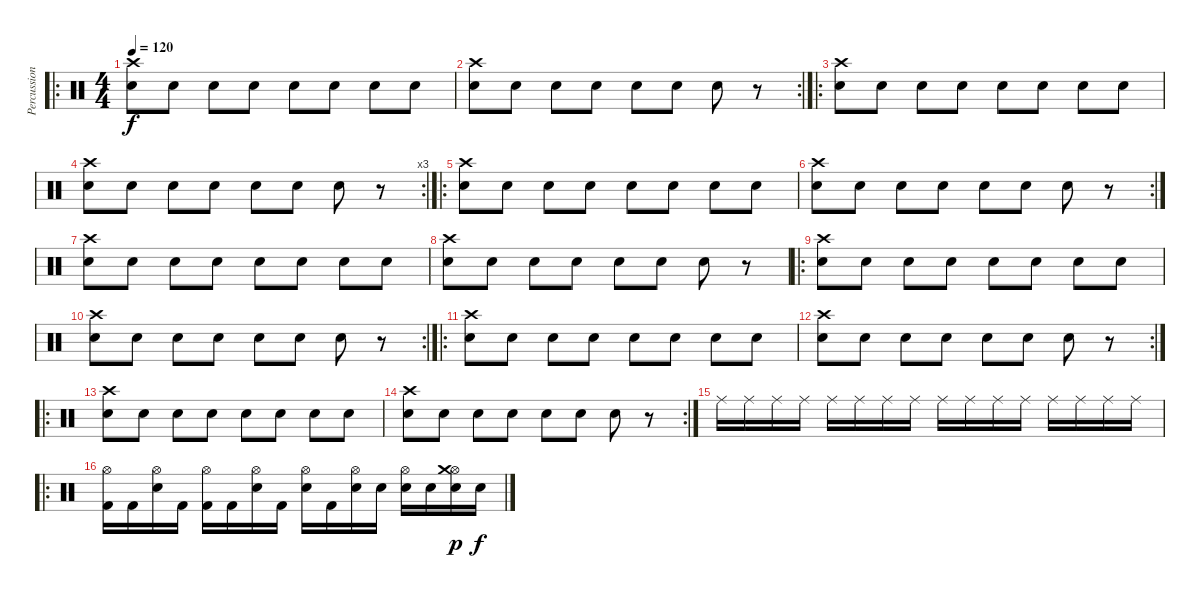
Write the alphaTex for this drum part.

\track ("Percussions" "Percussion") {instrument percussion}
\staff {score}
\articulation defaults
\ro
\ts (4 4)
\tempo 120
\clef neutral
\ks c
("Snare (hit) 2" "Crash high (hit)").8{dy f} "Snare (hit) 2".8 "Electric Snare (hit)".8 "Snare (hit) 2".8 "Snare (hit) 2".8 "Snare (hit) 2".8 "Electric Snare (hit)".8 "Snare (hit) 2".8 |
\rc 2
("Snare (hit) 2" "Crash high (hit)").8 "Snare (hit) 2".8 "Electric Snare (hit)".8 "Snare (hit) 2".8 "Snare (hit) 2".8 "Snare (hit) 2".8 "Electric Snare (hit)".8 r.8 |
\ro
("Snare (hit) 2" "Crash high (hit)").8 "Snare (hit) 2".8 "Electric Snare (hit)".8 "Snare (hit) 2".8 "Snare (hit) 2".8 "Snare (hit) 2".8 "Electric Snare (hit)".8 "Snare (hit) 2".8 |
\rc 3
("Snare (hit) 2" "Crash high (hit)").8 "Snare (hit) 2".8 "Electric Snare (hit)".8 "Snare (hit) 2".8 "Snare (hit) 2".8 "Snare (hit) 2".8 "Electric Snare (hit)".8 r.8 |
\ro
("Snare (hit) 2" "Crash high (hit)").8 "Snare (hit) 2".8 "Electric Snare (hit)".8 "Snare (hit) 2".8 "Snare (hit) 2".8 "Snare (hit) 2".8 "Electric Snare (hit)".8 "Snare (hit) 2".8 |
\rc 2
("Snare (hit) 2" "Crash high (hit)").8 "Snare (hit) 2".8 "Electric Snare (hit)".8 "Snare (hit) 2".8 "Snare (hit) 2".8 "Snare (hit) 2".8 "Electric Snare (hit)".8 r.8 |
("Snare (hit) 2" "Crash high (hit)").8 "Snare (hit) 2".8 "Electric Snare (hit)".8 "Snare (hit) 2".8 "Snare (hit) 2".8 "Snare (hit) 2".8 "Electric Snare (hit)".8 "Snare (hit) 2".8 |
("Snare (hit) 2" "Crash high (hit)").8 "Snare (hit) 2".8 "Electric Snare (hit)".8 "Snare (hit) 2".8 "Snare (hit) 2".8 "Snare (hit) 2".8 "Electric Snare (hit)".8 r.8 |
\ro
("Snare (hit) 2" "Crash high (hit)").8 "Snare (hit) 2".8 "Electric Snare (hit)".8 "Snare (hit) 2".8 "Snare (hit) 2".8 "Snare (hit) 2".8 "Electric Snare (hit)".8 "Snare (hit) 2".8 |
\rc 2
("Snare (hit) 2" "Crash high (hit)").8 "Snare (hit) 2".8 "Electric Snare (hit)".8 "Snare (hit) 2".8 "Snare (hit) 2".8 "Snare (hit) 2".8 "Electric Snare (hit)".8 r.8 |
\ro
("Snare (hit) 2" "Crash high (hit)").8 "Snare (hit) 2".8 "Electric Snare (hit)".8 "Snare (hit) 2".8 "Snare (hit) 2".8 "Snare (hit) 2".8 "Electric Snare (hit)".8 "Snare (hit) 2".8 |
\rc 2
("Snare (hit) 2" "Crash high (hit)").8 "Snare (hit) 2".8 "Electric Snare (hit)".8 "Snare (hit) 2".8 "Snare (hit) 2".8 "Snare (hit) 2".8 "Electric Snare (hit)".8 r.8 |
\ro
("Snare (hit) 2" "Crash high (hit)").8 "Snare (hit) 2".8 "Electric Snare (hit)".8 "Snare (hit) 2".8 "Snare (hit) 2".8 "Snare (hit) 2".8 "Electric Snare (hit)".8 "Snare (hit) 2".8 |
\rc 2
("Snare (hit) 2" "Crash high (hit)").8 "Snare (hit) 2".8 "Electric Snare (hit)".8 "Snare (hit) 2".8 "Snare (hit) 2".8 "Snare (hit) 2".8 "Electric Snare (hit)".8 r.8 |
"Ride (middle)".16 "Ride (middle)".16 "Ride (middle)".16 "Ride (middle)".16 "Ride (middle)".16 "Ride (middle)".16 "Ride (middle)".16 "Ride (middle)".16 "Ride (middle)".16 "Ride (middle)".16 "Ride (middle)".16 "Ride (middle)".16 "Ride (middle)".16 "Ride (middle)".16 "Ride (middle)".16 "Ride (middle)".16 |
\ro
("Hi-Hat (open)" "Kick (hit) 2").16 "Kick (hit) 2".16 ("Hi-Hat (open)" "Electric Snare (hit)").16 "Kick (hit) 2".16 ("Hi-Hat (open)" "Kick (hit) 2").16 "Kick (hit) 2".16 ("Hi-Hat (open)" "Electric Snare (hit)").16 "Kick (hit) 2".16 ("Hi-Hat (open)" "Electric Snare (hit)").16 "Kick (hit) 2".16 ("Hi-Hat (open)" "Electric Snare (hit)").16 "Electric Snare (hit)".16 ("Hi-Hat (open)" "Electric Snare (hit)").16 "Electric Snare (hit)".16 ("Hi-Hat (open)" "Crash medium (hit)" "Electric Snare (hit)").16{dy p} "Electric Snare (hit)".16{dy f}
